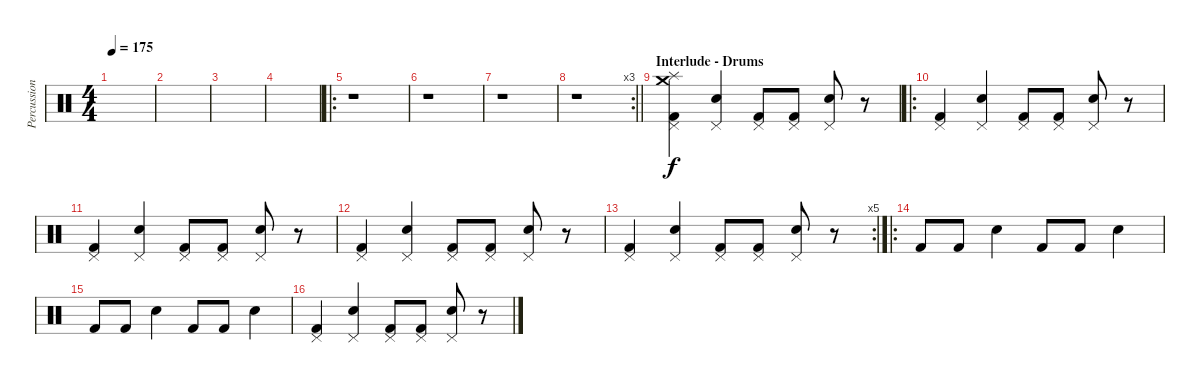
\track ("Percussion" "Percussion") {instrument percussion}
\staff {score}
\articulation defaults
\ts (4 4)
\tempo 175
\clef neutral
\ks c
|
|
|
|
\ro
r.1 |
r.1 |
r.1 |
\rc 3
\barLineRight lightlight
r.1 |
\section ("" "Interlude - Drums")
("Crash medium (hit)" "Splash (hit)" "Pedal Hi-Hat (hit)" "Kick (hit) 2").4 ("Pedal Hi-Hat (hit)" "Snare (hit) 2").4 ("Pedal Hi-Hat (hit)" "Kick (hit) 2").8 ("Pedal Hi-Hat (hit)" "Kick (hit) 2").8 ("Pedal Hi-Hat (hit)" "Snare (hit) 2").8 r.8 |
\ro
("Pedal Hi-Hat (hit)" "Kick (hit) 2").4 ("Pedal Hi-Hat (hit)" "Snare (hit) 2").4 ("Pedal Hi-Hat (hit)" "Kick (hit) 2").8 ("Pedal Hi-Hat (hit)" "Kick (hit) 2").8 ("Pedal Hi-Hat (hit)" "Snare (hit) 2").8 r.8 |
("Pedal Hi-Hat (hit)" "Kick (hit) 2").4 ("Pedal Hi-Hat (hit)" "Snare (hit) 2").4 ("Pedal Hi-Hat (hit)" "Kick (hit) 2").8 ("Pedal Hi-Hat (hit)" "Kick (hit) 2").8 ("Pedal Hi-Hat (hit)" "Snare (hit) 2").8 r.8 |
("Pedal Hi-Hat (hit)" "Kick (hit) 2").4 ("Pedal Hi-Hat (hit)" "Snare (hit) 2").4 ("Pedal Hi-Hat (hit)" "Kick (hit) 2").8 ("Pedal Hi-Hat (hit)" "Kick (hit) 2").8 ("Pedal Hi-Hat (hit)" "Snare (hit) 2").8 r.8 |
\rc 5
("Pedal Hi-Hat (hit)" "Kick (hit) 2").4 ("Pedal Hi-Hat (hit)" "Snare (hit) 2").4 ("Pedal Hi-Hat (hit)" "Kick (hit) 2").8 ("Pedal Hi-Hat (hit)" "Kick (hit) 2").8 ("Pedal Hi-Hat (hit)" "Snare (hit) 2").8 r.8 |
\ro "Kick (hit) 2".8 "Kick (hit) 2".8 "Snare (hit) 2".4 "Kick (hit) 2".8 "Kick (hit) 2".8 "Snare (hit) 2".4
|
"Kick (hit) 2".8 "Kick (hit) 2".8 "Snare (hit) 2".4 "Kick (hit) 2".8 "Kick (hit) 2".8 "Snare (hit) 2".4 |
("Pedal Hi-Hat (hit)" "Kick (hit) 2").4 ("Pedal Hi-Hat (hit)" "Snare (hit) 2").4 ("Pedal Hi-Hat (hit)" "Kick (hit) 2").8 ("Pedal Hi-Hat (hit)" "Kick (hit) 2").8 ("Pedal Hi-Hat (hit)" "Snare (hit) 2").8 r.8
